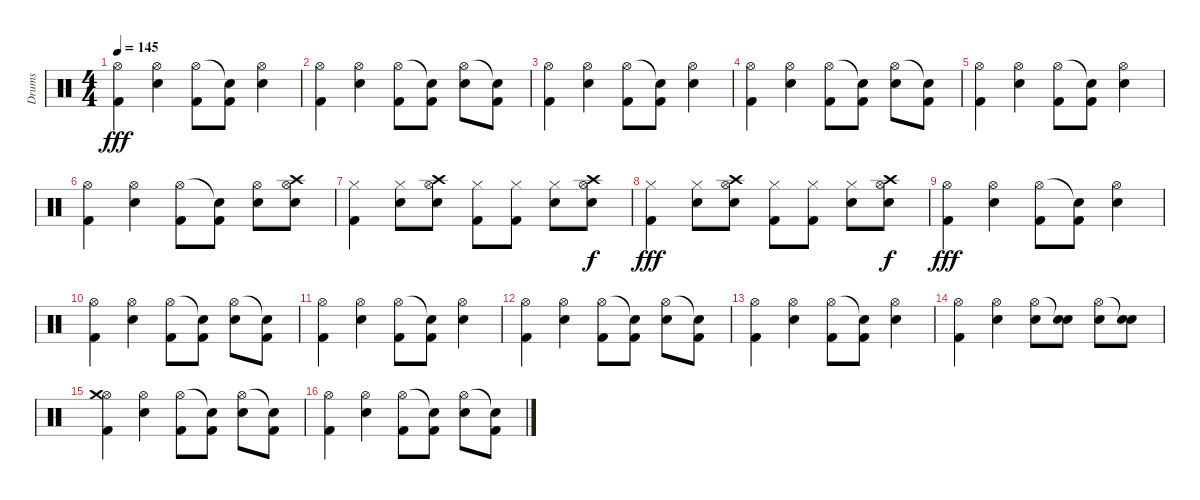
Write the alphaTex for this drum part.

\track ("Drums" "Drums") {instrument percussion}
\staff {score}
\articulation defaults
\ts (4 4)
\tempo 145
\clef neutral
\ks c
("Hi-Hat (open)" "Kick (hit) 2").4{dy fff} ("Hi-Hat (open)" "Electric Snare (hit)").4 ("Hi-Hat (open)" "Kick (hit) 2").8 ("Snare (hit)"{t} "Kick (hit) 2").8 ("Hi-Hat (open)" "Electric Snare (hit)").4 |
("Hi-Hat (open)" "Kick (hit) 2").4 ("Hi-Hat (open)" "Electric Snare (hit)").4 ("Hi-Hat (open)" "Kick (hit) 2").8 ("Snare (hit)"{t} "Kick (hit) 2").8 ("Hi-Hat (open)" "Electric Snare (hit)").8 ("Snare (hit)"{t} "Kick (hit) 2").8 |
("Hi-Hat (open)" "Kick (hit) 2").4 ("Hi-Hat (open)" "Electric Snare (hit)").4 ("Hi-Hat (open)" "Kick (hit) 2").8 ("Snare (hit)"{t} "Kick (hit) 2").8 ("Hi-Hat (open)" "Electric Snare (hit)").4 |
("Hi-Hat (open)" "Kick (hit) 2").4 ("Hi-Hat (open)" "Electric Snare (hit)").4 ("Hi-Hat (open)" "Kick (hit) 2").8 ("Snare (hit)"{t} "Kick (hit) 2").8 ("Hi-Hat (open)" "Electric Snare (hit)").8 ("Snare (hit)"{t} "Kick (hit) 2").8 |
("Hi-Hat (open)" "Kick (hit) 2").4 ("Hi-Hat (open)" "Electric Snare (hit)").4 ("Hi-Hat (open)" "Kick (hit) 2").8 ("Snare (hit)"{t} "Kick (hit) 2").8 ("Hi-Hat (open)" "Electric Snare (hit)").4 |
("Hi-Hat (open)" "Kick (hit) 2").4 ("Hi-Hat (open)" "Electric Snare (hit)").4 ("Hi-Hat (open)" "Kick (hit) 2").8 ("Snare (hit)"{t} "Kick (hit) 2").8 ("Hi-Hat (open)" "Electric Snare (hit)").8 ("Hi-Hat (open)" "Electric Snare (hit)" "Crash high (hit)").8 |
("Hi-Hat (closed)" "Kick (hit) 2").4 ("Hi-Hat (closed)" "Electric Snare (hit)").8 ("Hi-Hat (open)" "Electric Snare (hit)" "Crash high (hit)").8 ("Hi-Hat (closed)" "Kick (hit) 2").8 ("Hi-Hat (closed)" "Kick (hit) 2").8 ("Hi-Hat (closed)" "Electric Snare (hit)").8 ("Hi-Hat (open)" "Electric Snare (hit)" "Crash high (hit)").8{dy f} |
("Hi-Hat (closed)" "Kick (hit) 2").4{dy fff} ("Hi-Hat (closed)" "Electric Snare (hit)").8 ("Hi-Hat (open)" "Electric Snare (hit)" "Crash high (hit)").8 ("Hi-Hat (closed)" "Kick (hit) 2").8 ("Hi-Hat (closed)" "Kick (hit) 2").8 ("Hi-Hat (closed)" "Electric Snare (hit)").8 ("Hi-Hat (open)" "Electric Snare (hit)" "Crash high (hit)").8{dy f} |
("Hi-Hat (open)" "Kick (hit) 2").4{dy fff} ("Hi-Hat (open)" "Electric Snare (hit)").4 ("Hi-Hat (open)" "Kick (hit) 2").8 ("Snare (hit)"{t} "Kick (hit) 2").8 ("Hi-Hat (open)" "Electric Snare (hit)").4 |
("Hi-Hat (open)" "Kick (hit) 2").4 ("Hi-Hat (open)" "Electric Snare (hit)").4 ("Hi-Hat (open)" "Kick (hit) 2").8 ("Snare (hit)"{t} "Kick (hit) 2").8 ("Hi-Hat (open)" "Electric Snare (hit)").8 ("Snare (hit)"{t} "Kick (hit) 2").8 |
("Hi-Hat (open)" "Kick (hit) 2").4 ("Hi-Hat (open)" "Electric Snare (hit)").4 ("Hi-Hat (open)" "Kick (hit) 2").8 ("Snare (hit)"{t} "Kick (hit) 2").8 ("Hi-Hat (open)" "Electric Snare (hit)").4 |
("Hi-Hat (open)" "Kick (hit) 2").4 ("Hi-Hat (open)" "Electric Snare (hit)").4 ("Hi-Hat (open)" "Kick (hit) 2").8 ("Snare (hit)"{t} "Kick (hit) 2").8 ("Hi-Hat (open)" "Electric Snare (hit)").8 ("Snare (hit)"{t} "Kick (hit) 2").8 |
("Hi-Hat (open)" "Kick (hit) 2").4 ("Hi-Hat (open)" "Electric Snare (hit)").4 ("Hi-Hat (open)" "Kick (hit) 2").8 ("Snare (hit)"{t} "Kick (hit) 2").8 ("Hi-Hat (open)" "Electric Snare (hit)").4 |
("Hi-Hat (open)" "Kick (hit) 2").4 ("Hi-Hat (open)" "Electric Snare (hit)").4 ("Hi-Hat (open)" "Electric Snare (hit)").8 ("Snare (hit)"{t} "Electric Snare (hit)").8 ("Hi-Hat (open)" "Electric Snare (hit)").8 ("Snare (hit)"{t} "Electric Snare (hit)").8 |
("Hi-Hat (open)" "Kick (hit) 2" "Crash medium (hit)").4 ("Hi-Hat (open)" "Electric Snare (hit)").4 ("Hi-Hat (open)" "Kick (hit) 2").8 ("Snare (hit)"{t} "Kick (hit) 2").8 ("Hi-Hat (open)" "Electric Snare (hit)").8 ("Snare (hit)"{t} "Kick (hit) 2").8 |
("Hi-Hat (open)" "Kick (hit) 2").4 ("Hi-Hat (open)" "Electric Snare (hit)").4 ("Hi-Hat (open)" "Kick (hit) 2").8 ("Snare (hit)"{t} "Kick (hit) 2").8 ("Hi-Hat (open)" "Electric Snare (hit)").8 ("Snare (hit)"{t} "Kick (hit) 2").8
